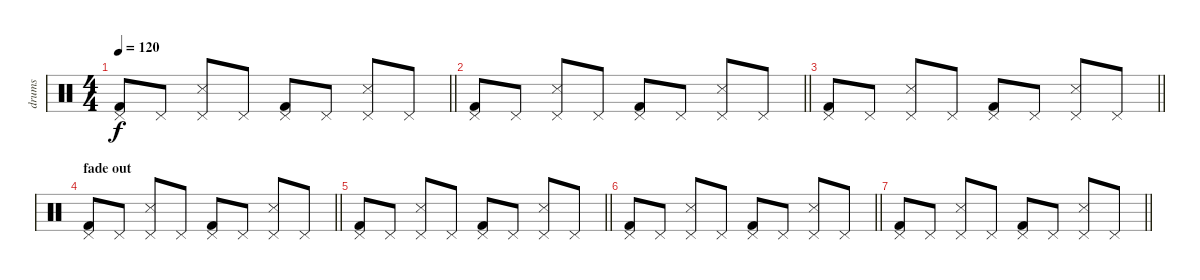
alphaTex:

\track ("drums" "drums") {instrument percussion}
\staff {score}
\articulation defaults
\ts (4 4)
\tempo 120
\clef neutral
\barLineRight lightlight
\ks c
("Kick (hit) 2" "Pedal Hi-Hat (hit)").8{dy f} "Pedal Hi-Hat (hit)".8 ("Snare (side stick) 3" "Pedal Hi-Hat (hit)").8 "Pedal Hi-Hat (hit)".8 ("Kick (hit) 2" "Pedal Hi-Hat (hit)").8 "Pedal Hi-Hat (hit)".8 ("Snare (side stick) 3" "Pedal Hi-Hat (hit)").8 "Pedal Hi-Hat (hit)".8 |
\barLineRight lightlight
("Kick (hit) 2" "Pedal Hi-Hat (hit)").8 "Pedal Hi-Hat (hit)".8 ("Snare (side stick) 3" "Pedal Hi-Hat (hit)").8 "Pedal Hi-Hat (hit)".8 ("Kick (hit) 2" "Pedal Hi-Hat (hit)").8 "Pedal Hi-Hat (hit)".8 ("Snare (side stick) 3" "Pedal Hi-Hat (hit)").8 "Pedal Hi-Hat (hit)".8 |
\barLineRight lightlight
("Kick (hit) 2" "Pedal Hi-Hat (hit)").8 "Pedal Hi-Hat (hit)".8 ("Snare (side stick) 3" "Pedal Hi-Hat (hit)").8 "Pedal Hi-Hat (hit)".8 ("Kick (hit) 2" "Pedal Hi-Hat (hit)").8 "Pedal Hi-Hat (hit)".8 ("Snare (side stick) 3" "Pedal Hi-Hat (hit)").8 "Pedal Hi-Hat (hit)".8 |
\section ("" "fade out")
\barLineRight lightlight
("Kick (hit) 2" "Pedal Hi-Hat (hit)").8 "Pedal Hi-Hat (hit)".8 ("Snare (side stick) 3" "Pedal Hi-Hat (hit)").8 "Pedal Hi-Hat (hit)".8 ("Kick (hit) 2" "Pedal Hi-Hat (hit)").8 "Pedal Hi-Hat (hit)".8 ("Snare (side stick) 3" "Pedal Hi-Hat (hit)").8 "Pedal Hi-Hat (hit)".8 |
\barLineRight lightlight
("Kick (hit) 2" "Pedal Hi-Hat (hit)").8 "Pedal Hi-Hat (hit)".8 ("Snare (side stick) 3" "Pedal Hi-Hat (hit)").8 "Pedal Hi-Hat (hit)".8 ("Kick (hit) 2" "Pedal Hi-Hat (hit)").8 "Pedal Hi-Hat (hit)".8 ("Snare (side stick) 3" "Pedal Hi-Hat (hit)").8 "Pedal Hi-Hat (hit)".8 |
\barLineRight lightlight
("Kick (hit) 2" "Pedal Hi-Hat (hit)").8{volume 7} "Pedal Hi-Hat (hit)".8 ("Snare (side stick) 3" "Pedal Hi-Hat (hit)").8 "Pedal Hi-Hat (hit)".8 ("Kick (hit) 2" "Pedal Hi-Hat (hit)").8 "Pedal Hi-Hat (hit)".8 ("Snare (side stick) 3" "Pedal Hi-Hat (hit)").8 "Pedal Hi-Hat (hit)".8 |
\barLineRight lightlight
("Kick (hit) 2" "Pedal Hi-Hat (hit)").8 "Pedal Hi-Hat (hit)".8 ("Snare (side stick) 3" "Pedal Hi-Hat (hit)").8 "Pedal Hi-Hat (hit)".8 ("Kick (hit) 2" "Pedal Hi-Hat (hit)").8 "Pedal Hi-Hat (hit)".8 ("Snare (side stick) 3" "Pedal Hi-Hat (hit)").8 "Pedal Hi-Hat (hit)".8
